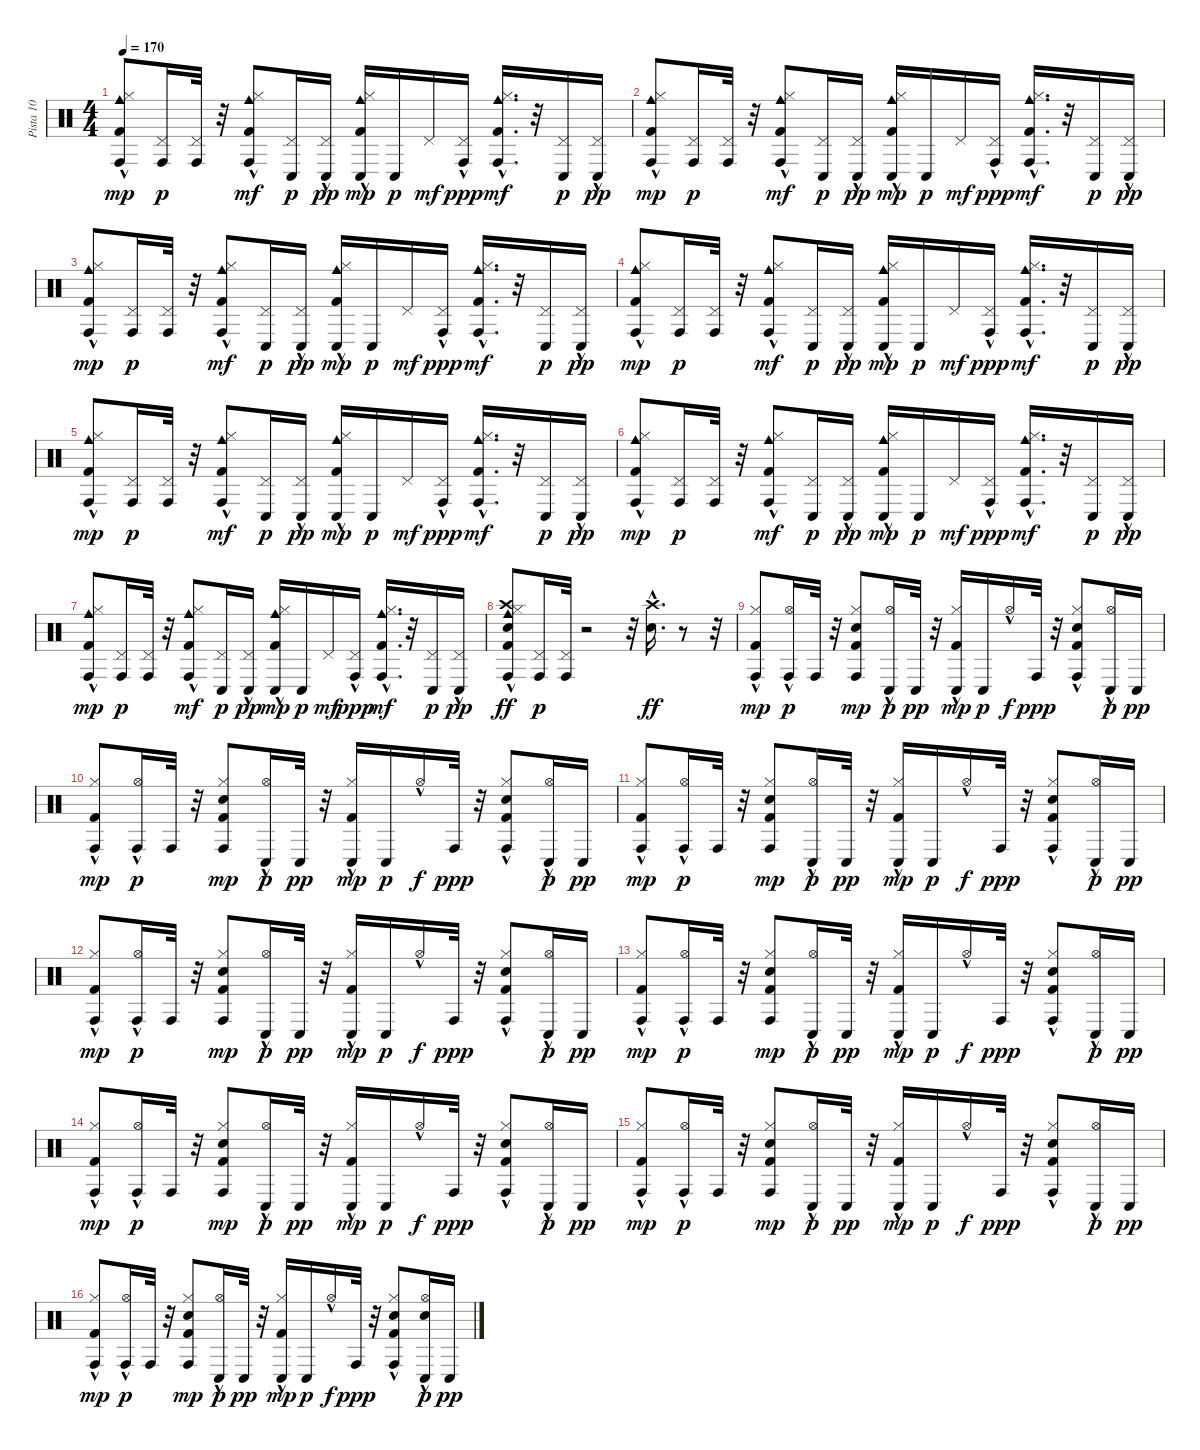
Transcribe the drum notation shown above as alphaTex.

\track ("Pista 10" "Pista 10") {instrument percussion}
\staff {score}
\articulation defaults
\ts (4 4)
\tempo 170
\clef neutral
\ks c
("Kick (hit) 2" "Hi-Hat (closed)"{hac} "Conga high (hit)" "Cowbell medium (hit)"{hac}).8{dy mp} ("Pedal Hi-Hat (hit)" "Conga high (hit)").16{dy p} ("Pedal Hi-Hat (hit)" "Conga high (hit)").32 r.32 ("Kick (hit) 2" "Hi-Hat (closed)" "Conga high (hit)" "Cowbell medium (hit)"{hac}).8{dy mf} ("Pedal Hi-Hat (hit)" "Conga low (hit)").16{dy p} ("Pedal Hi-Hat (hit)"{hac} "Conga low (hit)").16{dy pp} ("Kick (hit) 2" "Hi-Hat (closed)"{hac} "Conga low (hit)" "Cowbell medium (hit)"{hac}).16{dy mp} "Conga low (hit)".16{dy p} "Pedal Hi-Hat (hit)".16{dy mf} ("Pedal Hi-Hat (hit)"{hac} "Conga high (hit)").16{dy ppp} ("Kick (hit) 2" "Hi-Hat (closed)"{hac} "Conga high (hit)" "Cowbell medium (hit)"{hac}).16{d dy mf} r.32 ("Pedal Hi-Hat (hit)" "Conga low (hit)").16{dy p} ("Pedal Hi-Hat (hit)"{hac} "Conga low (hit)").16{dy pp} |
("Kick (hit) 2" "Hi-Hat (closed)"{hac} "Conga high (hit)" "Cowbell medium (hit)"{hac}).8{dy mp} ("Pedal Hi-Hat (hit)" "Conga high (hit)").16{dy p} ("Pedal Hi-Hat (hit)" "Conga high (hit)").32 r.32 ("Kick (hit) 2" "Hi-Hat (closed)" "Conga high (hit)" "Cowbell medium (hit)"{hac}).8{dy mf} ("Pedal Hi-Hat (hit)" "Conga low (hit)").16{dy p} ("Pedal Hi-Hat (hit)"{hac} "Conga low (hit)").16{dy pp} ("Kick (hit) 2" "Hi-Hat (closed)"{hac} "Conga low (hit)" "Cowbell medium (hit)"{hac}).16{dy mp} "Conga low (hit)".16{dy p} "Pedal Hi-Hat (hit)".16{dy mf} ("Pedal Hi-Hat (hit)"{hac} "Conga high (hit)").16{dy ppp} ("Kick (hit) 2" "Hi-Hat (closed)"{hac} "Conga high (hit)" "Cowbell medium (hit)"{hac}).16{d dy mf} r.32 ("Pedal Hi-Hat (hit)" "Conga low (hit)").16{dy p} ("Pedal Hi-Hat (hit)"{hac} "Conga low (hit)").16{dy pp} |
("Kick (hit) 2" "Hi-Hat (closed)"{hac} "Conga high (hit)" "Cowbell medium (hit)"{hac}).8{dy mp} ("Pedal Hi-Hat (hit)" "Conga high (hit)").16{dy p} ("Pedal Hi-Hat (hit)" "Conga high (hit)").32 r.32 ("Kick (hit) 2" "Hi-Hat (closed)" "Conga high (hit)" "Cowbell medium (hit)"{hac}).8{dy mf} ("Pedal Hi-Hat (hit)" "Conga low (hit)").16{dy p} ("Pedal Hi-Hat (hit)"{hac} "Conga low (hit)").16{dy pp} ("Kick (hit) 2" "Hi-Hat (closed)"{hac} "Conga low (hit)" "Cowbell medium (hit)"{hac}).16{dy mp} "Conga low (hit)".16{dy p} "Pedal Hi-Hat (hit)".16{dy mf} ("Pedal Hi-Hat (hit)"{hac} "Conga high (hit)").16{dy ppp} ("Kick (hit) 2" "Hi-Hat (closed)"{hac} "Conga high (hit)" "Cowbell medium (hit)"{hac}).16{d dy mf} r.32 ("Pedal Hi-Hat (hit)" "Conga low (hit)").16{dy p} ("Pedal Hi-Hat (hit)"{hac} "Conga low (hit)").16{dy pp} |
("Kick (hit) 2" "Hi-Hat (closed)"{hac} "Conga high (hit)" "Cowbell medium (hit)"{hac}).8{dy mp} ("Pedal Hi-Hat (hit)" "Conga high (hit)").16{dy p} ("Pedal Hi-Hat (hit)" "Conga high (hit)").32 r.32 ("Kick (hit) 2" "Hi-Hat (closed)" "Conga high (hit)" "Cowbell medium (hit)"{hac}).8{dy mf} ("Pedal Hi-Hat (hit)" "Conga low (hit)").16{dy p} ("Pedal Hi-Hat (hit)"{hac} "Conga low (hit)").16{dy pp} ("Kick (hit) 2" "Hi-Hat (closed)"{hac} "Conga low (hit)" "Cowbell medium (hit)"{hac}).16{dy mp} "Conga low (hit)".16{dy p} "Pedal Hi-Hat (hit)".16{dy mf} ("Pedal Hi-Hat (hit)"{hac} "Conga high (hit)").16{dy ppp} ("Kick (hit) 2" "Hi-Hat (closed)"{hac} "Conga high (hit)" "Cowbell medium (hit)"{hac}).16{d dy mf} r.32 ("Pedal Hi-Hat (hit)" "Conga low (hit)").16{dy p} ("Pedal Hi-Hat (hit)"{hac} "Conga low (hit)").16{dy pp} |
("Kick (hit) 2" "Hi-Hat (closed)"{hac} "Conga high (hit)" "Cowbell medium (hit)"{hac}).8{dy mp} ("Pedal Hi-Hat (hit)" "Conga high (hit)").16{dy p} ("Pedal Hi-Hat (hit)" "Conga high (hit)").32 r.32 ("Kick (hit) 2" "Hi-Hat (closed)" "Conga high (hit)" "Cowbell medium (hit)"{hac}).8{dy mf} ("Pedal Hi-Hat (hit)" "Conga low (hit)").16{dy p} ("Pedal Hi-Hat (hit)"{hac} "Conga low (hit)").16{dy pp} ("Kick (hit) 2" "Hi-Hat (closed)"{hac} "Conga low (hit)" "Cowbell medium (hit)"{hac}).16{dy mp} "Conga low (hit)".16{dy p} "Pedal Hi-Hat (hit)".16{dy mf} ("Pedal Hi-Hat (hit)"{hac} "Conga high (hit)").16{dy ppp} ("Kick (hit) 2" "Hi-Hat (closed)"{hac} "Conga high (hit)" "Cowbell medium (hit)"{hac}).16{d dy mf} r.32 ("Pedal Hi-Hat (hit)" "Conga low (hit)").16{dy p} ("Pedal Hi-Hat (hit)"{hac} "Conga low (hit)").16{dy pp} |
("Kick (hit) 2" "Hi-Hat (closed)"{hac} "Conga high (hit)" "Cowbell medium (hit)"{hac}).8{dy mp} ("Pedal Hi-Hat (hit)" "Conga high (hit)").16{dy p} ("Pedal Hi-Hat (hit)" "Conga high (hit)").32 r.32 ("Kick (hit) 2" "Hi-Hat (closed)" "Conga high (hit)" "Cowbell medium (hit)"{hac}).8{dy mf} ("Pedal Hi-Hat (hit)" "Conga low (hit)").16{dy p} ("Pedal Hi-Hat (hit)"{hac} "Conga low (hit)").16{dy pp} ("Kick (hit) 2" "Hi-Hat (closed)"{hac} "Conga low (hit)" "Cowbell medium (hit)"{hac}).16{dy mp} "Conga low (hit)".16{dy p} "Pedal Hi-Hat (hit)".16{dy mf} ("Pedal Hi-Hat (hit)"{hac} "Conga high (hit)").16{dy ppp} ("Kick (hit) 2" "Hi-Hat (closed)"{hac} "Conga high (hit)" "Cowbell medium (hit)"{hac}).16{d dy mf} r.32 ("Pedal Hi-Hat (hit)" "Conga low (hit)").16{dy p} ("Pedal Hi-Hat (hit)"{hac} "Conga low (hit)").16{dy pp} |
("Kick (hit) 2" "Hi-Hat (closed)"{hac} "Conga high (hit)" "Cowbell medium (hit)"{hac}).8{dy mp} ("Pedal Hi-Hat (hit)" "Conga high (hit)").16{dy p} ("Pedal Hi-Hat (hit)" "Conga high (hit)").32 r.32 ("Kick (hit) 2" "Hi-Hat (closed)" "Conga high (hit)" "Cowbell medium (hit)"{hac}).8{dy mf} ("Pedal Hi-Hat (hit)" "Conga low (hit)").16{dy p} ("Pedal Hi-Hat (hit)"{hac} "Conga low (hit)").16{dy pp} ("Kick (hit) 2" "Hi-Hat (closed)"{hac} "Conga low (hit)" "Cowbell medium (hit)"{hac}).16{dy mp} "Conga low (hit)".16{dy p} "Pedal Hi-Hat (hit)".16{dy mf} ("Pedal Hi-Hat (hit)"{hac} "Conga high (hit)").16{dy ppp} ("Kick (hit) 2" "Hi-Hat (closed)"{hac} "Conga high (hit)" "Cowbell medium (hit)"{hac}).16{d dy mf} r.32 ("Pedal Hi-Hat (hit)" "Conga low (hit)").16{dy p} ("Pedal Hi-Hat (hit)"{hac} "Conga low (hit)").16{dy pp} |
("Kick (hit) 2" "Hi-Hat (closed)"{hac} "Conga high (hit)" "Cowbell medium (hit)"{hac} "Crash high (hit)" "Snare (hit) 2").8{dy ff} ("Pedal Hi-Hat (hit)" "Conga high (hit)").16{dy p} ("Pedal Hi-Hat (hit)" "Conga high (hit)").32 r.2 r.32 ("Crash high (hit)" "Snare (hit) 2"{hac}).16{d dy ff} r.8 r.32 |
("Kick (hit) 2" "Hi-Hat (closed)"{hac} "Conga high (hit)").8{dy mp} ("Hi-Hat (open)"{hac} "Conga high (hit)").16{dy p} "Conga high (hit)".32 r.32 ("Kick (hit) 2" "Electric Snare (hit)" "Hi-Hat (closed)" "Conga high (hit)").8{dy mp} ("Hi-Hat (open)"{hac} "Conga low (hit)").16{dy p} "Conga low (hit)".32{dy pp} r.32 ("Kick (hit) 2" "Hi-Hat (closed)"{hac} "Conga low (hit)").16{dy mp} "Conga low (hit)".16{dy p} "Hi-Hat (open)"{hac}.16{dy f} "Conga high (hit)".32{dy ppp} r.32 ("Kick (hit) 2" "Electric Snare (hit)" "Hi-Hat (closed)"{hac} "Conga high (hit)").8 ("Hi-Hat (open)"{hac} "Conga low (hit)").16{dy p} "Conga low (hit)".16{dy pp} |
("Kick (hit) 2" "Hi-Hat (closed)"{hac} "Conga high (hit)").8{dy mp} ("Hi-Hat (open)"{hac} "Conga high (hit)").16{dy p} "Conga high (hit)".32 r.32 ("Kick (hit) 2" "Electric Snare (hit)" "Hi-Hat (closed)" "Conga high (hit)").8{dy mp} ("Hi-Hat (open)"{hac} "Conga low (hit)").16{dy p} "Conga low (hit)".32{dy pp} r.32 ("Kick (hit) 2" "Hi-Hat (closed)"{hac} "Conga low (hit)").16{dy mp} "Conga low (hit)".16{dy p} "Hi-Hat (open)"{hac}.16{dy f} "Conga high (hit)".32{dy ppp} r.32 ("Kick (hit) 2" "Electric Snare (hit)" "Hi-Hat (closed)"{hac} "Conga high (hit)").8 ("Hi-Hat (open)"{hac} "Conga low (hit)").16{dy p} "Conga low (hit)".16{dy pp} |
("Kick (hit) 2" "Hi-Hat (closed)"{hac} "Conga high (hit)").8{dy mp} ("Hi-Hat (open)"{hac} "Conga high (hit)").16{dy p} "Conga high (hit)".32 r.32 ("Kick (hit) 2" "Electric Snare (hit)" "Hi-Hat (closed)" "Conga high (hit)").8{dy mp} ("Hi-Hat (open)"{hac} "Conga low (hit)").16{dy p} "Conga low (hit)".32{dy pp} r.32 ("Kick (hit) 2" "Hi-Hat (closed)"{hac} "Conga low (hit)").16{dy mp} "Conga low (hit)".16{dy p} "Hi-Hat (open)"{hac}.16{dy f} "Conga high (hit)".32{dy ppp} r.32 ("Kick (hit) 2" "Electric Snare (hit)" "Hi-Hat (closed)"{hac} "Conga high (hit)").8 ("Hi-Hat (open)"{hac} "Conga low (hit)").16{dy p} "Conga low (hit)".16{dy pp} |
("Kick (hit) 2" "Hi-Hat (closed)"{hac} "Conga high (hit)").8{dy mp} ("Hi-Hat (open)"{hac} "Conga high (hit)").16{dy p} "Conga high (hit)".32 r.32 ("Kick (hit) 2" "Electric Snare (hit)" "Hi-Hat (closed)" "Conga high (hit)").8{dy mp} ("Hi-Hat (open)"{hac} "Conga low (hit)").16{dy p} "Conga low (hit)".32{dy pp} r.32 ("Kick (hit) 2" "Hi-Hat (closed)"{hac} "Conga low (hit)").16{dy mp} "Conga low (hit)".16{dy p} "Hi-Hat (open)"{hac}.16{dy f} "Conga high (hit)".32{dy ppp} r.32 ("Kick (hit) 2" "Electric Snare (hit)" "Hi-Hat (closed)"{hac} "Conga high (hit)").8 ("Hi-Hat (open)"{hac} "Conga low (hit)").16{dy p} "Conga low (hit)".16{dy pp} |
("Kick (hit) 2" "Hi-Hat (closed)"{hac} "Conga high (hit)").8{dy mp} ("Hi-Hat (open)"{hac} "Conga high (hit)").16{dy p} "Conga high (hit)".32 r.32 ("Kick (hit) 2" "Electric Snare (hit)" "Hi-Hat (closed)" "Conga high (hit)").8{dy mp} ("Hi-Hat (open)"{hac} "Conga low (hit)").16{dy p} "Conga low (hit)".32{dy pp} r.32 ("Kick (hit) 2" "Hi-Hat (closed)"{hac} "Conga low (hit)").16{dy mp} "Conga low (hit)".16{dy p} "Hi-Hat (open)"{hac}.16{dy f} "Conga high (hit)".32{dy ppp} r.32 ("Kick (hit) 2" "Electric Snare (hit)" "Hi-Hat (closed)"{hac} "Conga high (hit)").8 ("Hi-Hat (open)"{hac} "Conga low (hit)").16{dy p} "Conga low (hit)".16{dy pp} |
("Kick (hit) 2" "Hi-Hat (closed)"{hac} "Conga high (hit)").8{dy mp} ("Hi-Hat (open)"{hac} "Conga high (hit)").16{dy p} "Conga high (hit)".32 r.32 ("Kick (hit) 2" "Electric Snare (hit)" "Hi-Hat (closed)" "Conga high (hit)").8{dy mp} ("Hi-Hat (open)"{hac} "Conga low (hit)").16{dy p} "Conga low (hit)".32{dy pp} r.32 ("Kick (hit) 2" "Hi-Hat (closed)"{hac} "Conga low (hit)").16{dy mp} "Conga low (hit)".16{dy p} "Hi-Hat (open)"{hac}.16{dy f} "Conga high (hit)".32{dy ppp} r.32 ("Kick (hit) 2" "Electric Snare (hit)" "Hi-Hat (closed)"{hac} "Conga high (hit)").8 ("Hi-Hat (open)"{hac} "Conga low (hit)").16{dy p} "Conga low (hit)".16{dy pp} |
("Kick (hit) 2" "Hi-Hat (closed)"{hac} "Conga high (hit)").8{dy mp} ("Hi-Hat (open)"{hac} "Conga high (hit)").16{dy p} "Conga high (hit)".32 r.32 ("Kick (hit) 2" "Electric Snare (hit)" "Hi-Hat (closed)" "Conga high (hit)").8{dy mp} ("Hi-Hat (open)"{hac} "Conga low (hit)").16{dy p} "Conga low (hit)".32{dy pp} r.32 ("Kick (hit) 2" "Hi-Hat (closed)"{hac} "Conga low (hit)").16{dy mp} "Conga low (hit)".16{dy p} "Hi-Hat (open)"{hac}.16{dy f} "Conga high (hit)".32{dy ppp} r.32 ("Kick (hit) 2" "Electric Snare (hit)" "Hi-Hat (closed)"{hac} "Conga high (hit)").8 ("Hi-Hat (open)"{hac} "Conga low (hit)").16{dy p} "Conga low (hit)".16{dy pp} |
("Kick (hit) 2" "Hi-Hat (closed)"{hac} "Conga high (hit)").8{dy mp} ("Hi-Hat (open)"{hac} "Conga high (hit)").16{dy p} "Conga high (hit)".32 r.32 ("Kick (hit) 2" "Electric Snare (hit)" "Hi-Hat (closed)" "Conga high (hit)").8{dy mp} ("Hi-Hat (open)"{hac} "Conga low (hit)").16{dy p} "Conga low (hit)".32{dy pp} r.32 ("Kick (hit) 2" "Hi-Hat (closed)"{hac} "Conga low (hit)").16{dy mp} "Conga low (hit)".16{dy p} "Hi-Hat (open)"{hac}.16{dy f} "Conga high (hit)".32{dy ppp} r.32 ("Kick (hit) 2" "Electric Snare (hit)" "Hi-Hat (closed)"{hac} "Conga high (hit)").8 ("Hi-Hat (open)"{hac} "Snare (hit) 2" "Conga low (hit)").16{dy p} "Conga low (hit)".16{dy pp}
